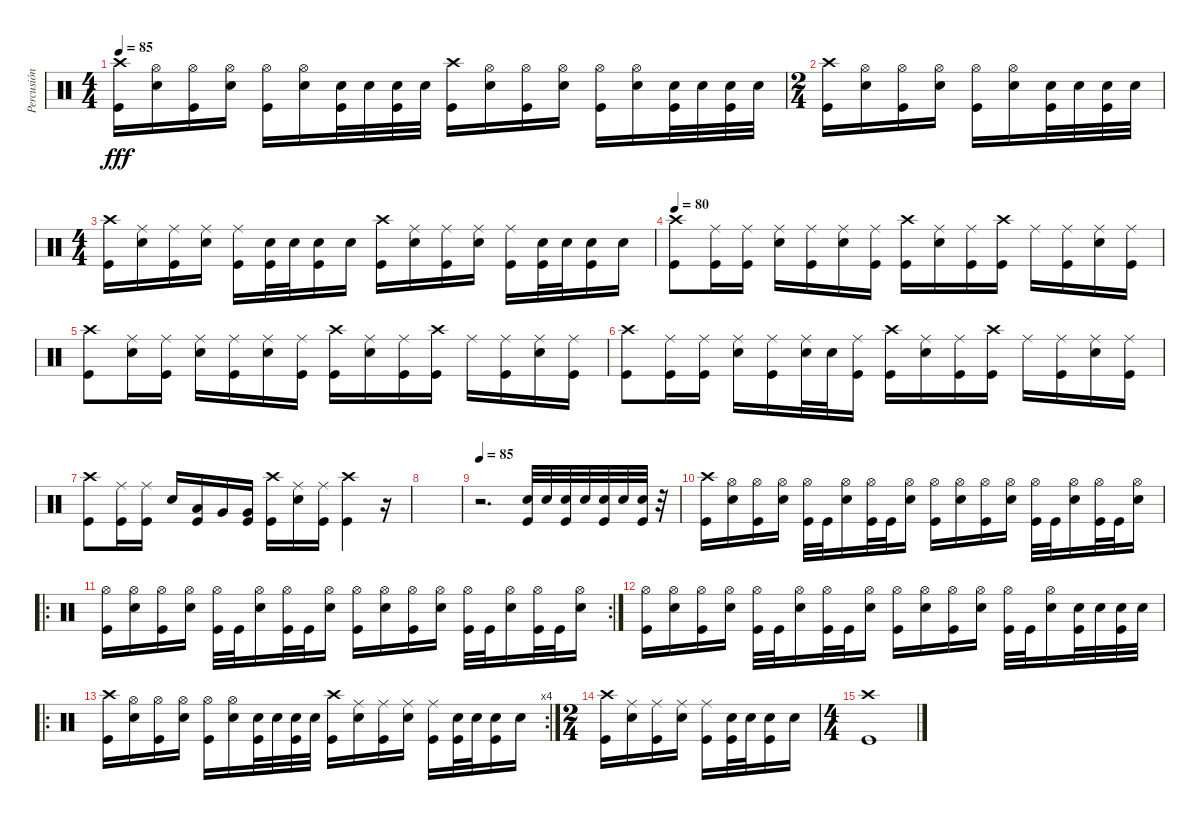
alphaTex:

\track ("Percusión" "Percusión") {instrument percussion}
\staff {score}
\articulation defaults
\ts (4 4)
\tempo 85
\clef neutral
\ks c
("Crash high (hit)" "Kick (hit)").16{dy fff} ("Hi-Hat (open)" "Electric Snare (hit)").16 ("Hi-Hat (open)" "Kick (hit)").16 ("Hi-Hat (open)" "Electric Snare (hit)").16 ("Hi-Hat (open)" "Kick (hit)").16 ("Hi-Hat (open)" "Electric Snare (hit)").16 ("Electric Snare (hit)" "Kick (hit)").32 "Electric Snare (hit)".32 ("Electric Snare (hit)" "Kick (hit)").32 "Electric Snare (hit)".32 ("Crash high (hit)" "Kick (hit)").16 ("Hi-Hat (open)" "Electric Snare (hit)").16 ("Hi-Hat (open)" "Kick (hit)").16 ("Hi-Hat (open)" "Electric Snare (hit)").16 ("Hi-Hat (open)" "Kick (hit)").16 ("Hi-Hat (open)" "Electric Snare (hit)").16 ("Electric Snare (hit)" "Kick (hit)").32 "Electric Snare (hit)".32 ("Electric Snare (hit)" "Kick (hit)").32 "Electric Snare (hit)".32 |
\ts (2 4)
("Crash high (hit)" "Kick (hit)").16 ("Hi-Hat (open)" "Electric Snare (hit)").16 ("Hi-Hat (open)" "Kick (hit)").16 ("Hi-Hat (open)" "Electric Snare (hit)").16 ("Hi-Hat (open)" "Kick (hit)").16 ("Hi-Hat (open)" "Electric Snare (hit)").16 ("Electric Snare (hit)" "Kick (hit)").32 "Electric Snare (hit)".32 ("Electric Snare (hit)" "Kick (hit)").32 "Electric Snare (hit)".32 |
\ts (4 4)
("Crash high (hit)" "Kick (hit)").16 ("Ride (middle)" "Electric Snare (hit)").16 ("Ride (middle)" "Kick (hit)").16 ("Ride (middle)" "Electric Snare (hit)").16 ("Ride (middle)" "Kick (hit)").16 ("Electric Snare (hit)" "Kick (hit)").32 "Electric Snare (hit)".32 ("Electric Snare (hit)" "Kick (hit)").16 "Electric Snare (hit)".16 ("Crash high (hit)" "Kick (hit)").16 ("Ride (middle)" "Electric Snare (hit)").16 ("Ride (middle)" "Kick (hit)").16 ("Ride (middle)" "Electric Snare (hit)").16 ("Ride (middle)" "Kick (hit)").16 ("Electric Snare (hit)" "Kick (hit)").32 "Electric Snare (hit)".32 ("Electric Snare (hit)" "Kick (hit)").16 "Electric Snare (hit)".16 |
\tempo 80
("Crash high (hit)" "Kick (hit)").8 ("Ride (middle)" "Kick (hit)").16 ("Ride (middle)" "Kick (hit)").16 ("Ride (middle)" "Electric Snare (hit)").16 ("Ride (middle)" "Kick (hit)").16 ("Ride (middle)" "Electric Snare (hit)").16 ("Ride (middle)" "Kick (hit)").16 ("Crash high (hit)" "Kick (hit)").16 ("Ride (middle)" "Electric Snare (hit)").16 ("Ride (middle)" "Kick (hit)").16 ("Crash high (hit)" "Kick (hit)").16 "Ride (middle)".16 ("Ride (middle)" "Kick (hit)").16 ("Ride (middle)" "Electric Snare (hit)").16 ("Ride (middle)" "Kick (hit)").16 |
("Crash high (hit)" "Kick (hit)").8 ("Ride (middle)" "Electric Snare (hit)").16 ("Ride (middle)" "Kick (hit)").16 ("Ride (middle)" "Electric Snare (hit)").16 ("Ride (middle)" "Kick (hit)").16 ("Ride (middle)" "Electric Snare (hit)").16 ("Ride (middle)" "Kick (hit)").16 ("Crash high (hit)" "Kick (hit)").16 ("Ride (middle)" "Electric Snare (hit)").16 ("Ride (middle)" "Kick (hit)").16 ("Crash high (hit)" "Kick (hit)").16 "Ride (middle)".16 ("Ride (middle)" "Kick (hit)").16 ("Ride (middle)" "Electric Snare (hit)").16 ("Ride (middle)" "Kick (hit)").16 |
("Crash high (hit)" "Kick (hit)").8 ("Ride (middle)" "Kick (hit)").16 ("Ride (middle)" "Kick (hit)").16 ("Ride (middle)" "Electric Snare (hit)").16 ("Ride (middle)" "Kick (hit)").16 ("Ride (middle)" "Electric Snare (hit)").32 "Electric Snare (hit)".32 ("Ride (middle)" "Kick (hit)").16 ("Crash high (hit)" "Kick (hit)").16 ("Ride (middle)" "Electric Snare (hit)").16 ("Ride (middle)" "Kick (hit)").16 ("Crash high (hit)" "Kick (hit)").16 "Ride (middle)".16 ("Ride (middle)" "Kick (hit)").16 ("Ride (middle)" "Electric Snare (hit)").16 ("Ride (middle)" "Kick (hit)").16 |
("Crash high (hit)" "Kick (hit)").8 ("Ride (middle)" "Kick (hit)").16 ("Ride (middle)" "Kick (hit)").16 "Electric Snare (hit)".16 ("Low Tom (hit)" "Kick (hit)").16 "Very Low Tom (hit)".16 ("Very Low Tom (hit)" "Kick (hit)").16 ("Crash high (hit)" "Kick (hit)").16 ("Ride (middle)" "Electric Snare (hit)").16 ("Ride (middle)" "Kick (hit)").16 ("Crash high (hit)" "Kick (hit)").4 r.16 |
|
\tempo 85
r.2{d} ("Electric Snare (hit)" "Kick (hit)").32 "Electric Snare (hit)".32 ("Electric Snare (hit)" "Kick (hit)").32 "Electric Snare (hit)".32 ("Electric Snare (hit)" "Kick (hit)").32 "Electric Snare (hit)".32 ("Electric Snare (hit)" "Kick (hit)").32 r.32 |
("Crash high (hit)" "Kick (hit)").16 ("Hi-Hat (open)" "Electric Snare (hit)").16 ("Hi-Hat (open)" "Kick (hit)").16 ("Hi-Hat (open)" "Electric Snare (hit)").16 ("Hi-Hat (open)" "Kick (hit)").32 "Kick (hit)".32 ("Hi-Hat (open)" "Electric Snare (hit)").16 ("Hi-Hat (open)" "Kick (hit)").32 "Kick (hit)".32 ("Hi-Hat (open)" "Electric Snare (hit)").16 ("Hi-Hat (open)" "Kick (hit)").16 ("Hi-Hat (open)" "Electric Snare (hit)").16 ("Hi-Hat (open)" "Kick (hit)").16 ("Hi-Hat (open)" "Electric Snare (hit)").16 ("Hi-Hat (open)" "Kick (hit)").32 "Kick (hit)".32 ("Hi-Hat (open)" "Electric Snare (hit)").16 ("Hi-Hat (open)" "Kick (hit)").32 "Kick (hit)".32 ("Hi-Hat (open)" "Electric Snare (hit)").16 |
\ro
\rc 2
("Hi-Hat (open)" "Kick (hit)").16 ("Hi-Hat (open)" "Electric Snare (hit)").16 ("Hi-Hat (open)" "Kick (hit)").16 ("Hi-Hat (open)" "Electric Snare (hit)").16 ("Hi-Hat (open)" "Kick (hit)").32 "Kick (hit)".32 ("Hi-Hat (open)" "Electric Snare (hit)").16 ("Hi-Hat (open)" "Kick (hit)").32 "Kick (hit)".32 ("Hi-Hat (open)" "Electric Snare (hit)").16 ("Hi-Hat (open)" "Kick (hit)").16 ("Hi-Hat (open)" "Electric Snare (hit)").16 ("Hi-Hat (open)" "Kick (hit)").16 ("Hi-Hat (open)" "Electric Snare (hit)").16 ("Hi-Hat (open)" "Kick (hit)").32 "Kick (hit)".32 ("Hi-Hat (open)" "Electric Snare (hit)").16 ("Hi-Hat (open)" "Kick (hit)").32 "Kick (hit)".32 ("Hi-Hat (open)" "Electric Snare (hit)").16 |
("Hi-Hat (open)" "Kick (hit)").16 ("Hi-Hat (open)" "Electric Snare (hit)").16 ("Hi-Hat (open)" "Kick (hit)").16 ("Hi-Hat (open)" "Electric Snare (hit)").16 ("Hi-Hat (open)" "Kick (hit)").32 "Kick (hit)".32 ("Hi-Hat (open)" "Electric Snare (hit)").16 ("Hi-Hat (open)" "Kick (hit)").32 "Kick (hit)".32 ("Hi-Hat (open)" "Electric Snare (hit)").16 ("Hi-Hat (open)" "Kick (hit)").16 ("Hi-Hat (open)" "Electric Snare (hit)").16 ("Hi-Hat (open)" "Kick (hit)").16 ("Hi-Hat (open)" "Electric Snare (hit)").16 ("Hi-Hat (open)" "Kick (hit)").32 "Kick (hit)".32 ("Hi-Hat (open)" "Electric Snare (hit)").16 ("Electric Snare (hit)" "Kick (hit)").32 "Electric Snare (hit)".32 ("Electric Snare (hit)" "Kick (hit)").32 "Electric Snare (hit)".32 |
\ro
\rc 4
("Crash high (hit)" "Kick (hit)").16 ("Hi-Hat (open)" "Electric Snare (hit)").16 ("Hi-Hat (open)" "Kick (hit)").16 ("Hi-Hat (open)" "Electric Snare (hit)").16 ("Hi-Hat (open)" "Kick (hit)").16 ("Hi-Hat (open)" "Electric Snare (hit)").16 ("Electric Snare (hit)" "Kick (hit)").32 "Electric Snare (hit)".32 ("Electric Snare (hit)" "Kick (hit)").32 "Electric Snare (hit)".32 ("Crash high (hit)" "Kick (hit)").16 ("Ride (middle)" "Electric Snare (hit)").16 ("Ride (middle)" "Kick (hit)").16 ("Ride (middle)" "Electric Snare (hit)").16 ("Ride (middle)" "Kick (hit)").16 ("Electric Snare (hit)" "Kick (hit)").32 "Electric Snare (hit)".32 ("Electric Snare (hit)" "Kick (hit)").16 "Electric Snare (hit)".16 |
\ts (2 4)
("Crash high (hit)" "Kick (hit)").16 ("Ride (middle)" "Electric Snare (hit)").16 ("Ride (middle)" "Kick (hit)").16 ("Ride (middle)" "Electric Snare (hit)").16 ("Ride (middle)" "Kick (hit)").16 ("Electric Snare (hit)" "Kick (hit)").32 "Electric Snare (hit)".32 ("Electric Snare (hit)" "Kick (hit)").16 "Electric Snare (hit)".16 |
\ts (4 4)
("Crash high (hit)" "Kick (hit)").1
